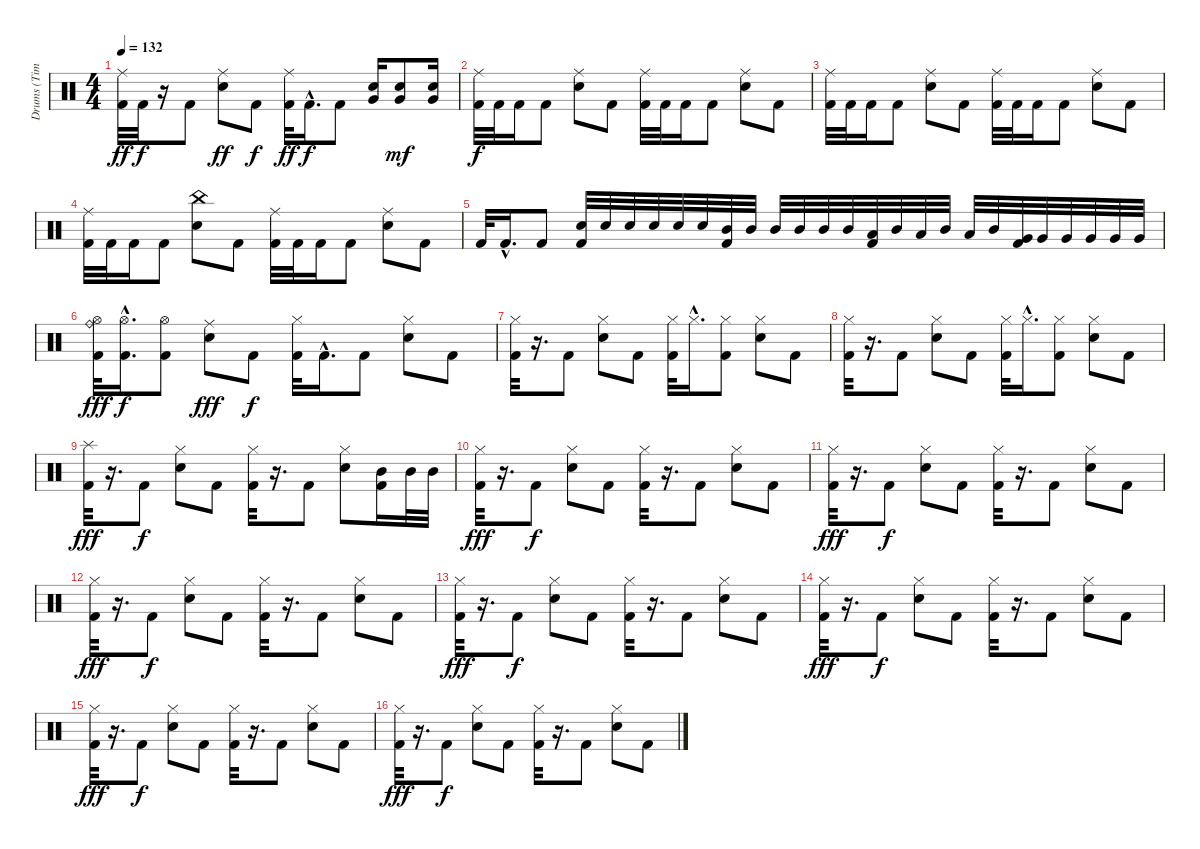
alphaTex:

\track ("Drums (Tim Alexander)" "Drums (Tim") {instrument percussion}
\staff {score}
\articulation defaults
\ts (4 4)
\tempo 132
\clef neutral
\ks c
("Ride (middle)" "Kick (hit) 2").32{dy ff} "Kick (hit) 2".32{dy f} r.16 "Kick (hit) 2".8 ("Ride (middle)" "Snare (hit) 2").8{dy ff} "Kick (hit) 2".8{dy f} ("Ride (middle)" "Kick (hit) 2").32{dy ff} "Kick (hit) 2"{hac}.16{d dy f} "Kick (hit) 2".8 ("Snare (hit) 2" "Very Low Tom (hit)").16 ("Very Low Tom (hit)" "Snare (hit) 2").8{dy mf} ("Very Low Tom (hit)" "Snare (hit) 2").16 |
("Ride (middle)" "Kick (hit) 2").32{dy f} "Kick (hit) 2".32 "Kick (hit) 2".16 "Kick (hit) 2".8 ("Ride (middle)" "Snare (hit) 2").8 "Kick (hit) 2".8 ("Ride (middle)" "Kick (hit) 2").32 "Kick (hit) 2".32 "Kick (hit) 2".16 "Kick (hit) 2".8 ("Ride (middle)" "Snare (hit) 2").8 "Kick (hit) 2".8 |
("Ride (middle)" "Kick (hit) 2").32 "Kick (hit) 2".32 "Kick (hit) 2".16 "Kick (hit) 2".8 ("Ride (middle)" "Snare (hit) 2").8 "Kick (hit) 2".8 ("Ride (middle)" "Kick (hit) 2").32 "Kick (hit) 2".32 "Kick (hit) 2".16 "Kick (hit) 2".8 ("Ride (middle)" "Snare (hit) 2").8 "Kick (hit) 2".8 |
("Ride (middle)" "Kick (hit) 2").32 "Kick (hit) 2".32 "Kick (hit) 2".16 "Kick (hit) 2".8 ("China (hit)" "Snare (hit) 2").8 "Kick (hit) 2".8 ("Ride (middle)" "Kick (hit) 2").32 "Kick (hit) 2".32 "Kick (hit) 2".16 "Kick (hit) 2".8 ("Ride (middle)" "Snare (hit) 2").8 "Kick (hit) 2".8 |
"Kick (hit) 2".32 "Kick (hit) 2"{hac}.16{d} "Kick (hit) 2".8 ("Snare (hit) 2" "Kick (hit) 2").32 "Snare (hit) 2".32 "Snare (hit) 2".32 "Snare (hit) 2".32 "Snare (hit) 2".32 "Snare (hit) 2".32 ("Mid Tom (hit)" "Kick (hit) 2").32 "Mid Tom (hit)".32 "Mid Tom (hit)".32 "Mid Tom (hit)".32 "Mid Tom (hit)".32 "Mid Tom (hit)".32 ("Low Tom (hit)" "Kick (hit) 2").32 "Mid Tom (hit)".32 "Low Tom (hit)".32 "Mid Tom (hit)".32 "Low Tom (hit)".32 "Mid Tom (hit)".32 ("Very Low Tom (hit)" "Kick (hit) 2").32 "Very Low Tom (hit)".32 "Very Low Tom (hit)".32 "Very Low Tom (hit)".32 "Very Low Tom (hit)".32 "Very Low Tom (hit)".32 |
("Hi-Hat (open)" "Ride (bell)" "Kick (hit) 2").32{dy fff} ("Hi-Hat (open)"{hac} "Kick (hit) 2"{hac}).16{d dy f} ("Hi-Hat (open)" "Kick (hit) 2").8 ("Ride (middle)" "Snare (hit) 2").8{dy fff} "Kick (hit) 2".8{dy f} ("Hi-Hat (closed)" "Kick (hit) 2").32 "Kick (hit) 2"{hac}.16{d} "Kick (hit) 2".8 ("Hi-Hat (closed)" "Snare (hit) 2").8 "Kick (hit) 2".8 |
("Hi-Hat (closed)" "Kick (hit) 2").32 r.16{d} "Kick (hit) 2".8 ("Hi-Hat (closed)" "Snare (hit) 2").8 "Kick (hit) 2".8 ("Hi-Hat (closed)" "Kick (hit) 2").32 "Hi-Hat (closed)"{hac}.16{d} ("Hi-Hat (closed)" "Kick (hit) 2").8 ("Hi-Hat (closed)" "Snare (hit) 2").8 "Kick (hit) 2".8 |
("Hi-Hat (closed)" "Kick (hit) 2").32 r.16{d} "Kick (hit) 2".8 ("Hi-Hat (closed)" "Snare (hit) 2").8 "Kick (hit) 2".8 ("Hi-Hat (closed)" "Kick (hit) 2").32 "Hi-Hat (closed)"{hac}.16{d} ("Hi-Hat (closed)" "Kick (hit) 2").8 ("Hi-Hat (closed)" "Snare (hit) 2").8 "Kick (hit) 2".8 |
("Splash (hit)" "Kick (hit) 2").32{dy fff} r.16{d} "Kick (hit) 2".8{dy f} ("Hi-Hat (closed)" "Snare (hit) 2").8 "Kick (hit) 2".8 ("Hi-Hat (closed)" "Kick (hit) 2").32 r.16{d} "Kick (hit) 2".8 ("Hi-Hat (closed)" "Snare (hit) 2").8 ("Mid Tom (hit)" "Kick (hit) 2").16 "Mid Tom (hit)".32 "Mid Tom (hit)".32 |
("Hi-Hat (closed)" "Kick (hit) 2").32{dy fff} r.16{d} "Kick (hit) 2".8{dy f} ("Hi-Hat (closed)" "Snare (hit) 2").8 "Kick (hit) 2".8 ("Hi-Hat (closed)" "Kick (hit) 2").32 r.16{d} "Kick (hit) 2".8 ("Hi-Hat (closed)" "Snare (hit) 2").8 "Kick (hit) 2".8 |
("Hi-Hat (closed)" "Kick (hit) 2").32{dy fff} r.16{d} "Kick (hit) 2".8{dy f} ("Hi-Hat (closed)" "Snare (hit) 2").8 "Kick (hit) 2".8 ("Hi-Hat (closed)" "Kick (hit) 2").32 r.16{d} "Kick (hit) 2".8 ("Hi-Hat (closed)" "Snare (hit) 2").8 "Kick (hit) 2".8 |
("Hi-Hat (closed)" "Kick (hit) 2").32{dy fff} r.16{d} "Kick (hit) 2".8{dy f} ("Hi-Hat (closed)" "Snare (hit) 2").8 "Kick (hit) 2".8 ("Hi-Hat (closed)" "Kick (hit) 2").32 r.16{d} "Kick (hit) 2".8 ("Hi-Hat (closed)" "Snare (hit) 2").8 "Kick (hit) 2".8 |
("Hi-Hat (closed)" "Kick (hit) 2").32{dy fff} r.16{d} "Kick (hit) 2".8{dy f} ("Hi-Hat (closed)" "Snare (hit) 2").8 "Kick (hit) 2".8 ("Hi-Hat (closed)" "Kick (hit) 2").32 r.16{d} "Kick (hit) 2".8 ("Hi-Hat (closed)" "Snare (hit) 2").8 "Kick (hit) 2".8 |
("Hi-Hat (closed)" "Kick (hit) 2").32{dy fff} r.16{d} "Kick (hit) 2".8{dy f} ("Hi-Hat (closed)" "Snare (hit) 2").8 "Kick (hit) 2".8 ("Hi-Hat (closed)" "Kick (hit) 2").32 r.16{d} "Kick (hit) 2".8 ("Hi-Hat (closed)" "Snare (hit) 2").8 "Kick (hit) 2".8 |
("Hi-Hat (closed)" "Kick (hit) 2").32{dy fff} r.16{d} "Kick (hit) 2".8{dy f} ("Hi-Hat (closed)" "Snare (hit) 2").8 "Kick (hit) 2".8 ("Hi-Hat (closed)" "Kick (hit) 2").32 r.16{d} "Kick (hit) 2".8 ("Hi-Hat (closed)" "Snare (hit) 2").8 "Kick (hit) 2".8 |
("Hi-Hat (closed)" "Kick (hit) 2").32{dy fff} r.16{d} "Kick (hit) 2".8{dy f} ("Hi-Hat (closed)" "Snare (hit) 2").8 "Kick (hit) 2".8 ("Hi-Hat (closed)" "Kick (hit) 2").32 r.16{d} "Kick (hit) 2".8 ("Hi-Hat (closed)" "Snare (hit) 2").8 "Kick (hit) 2".8
